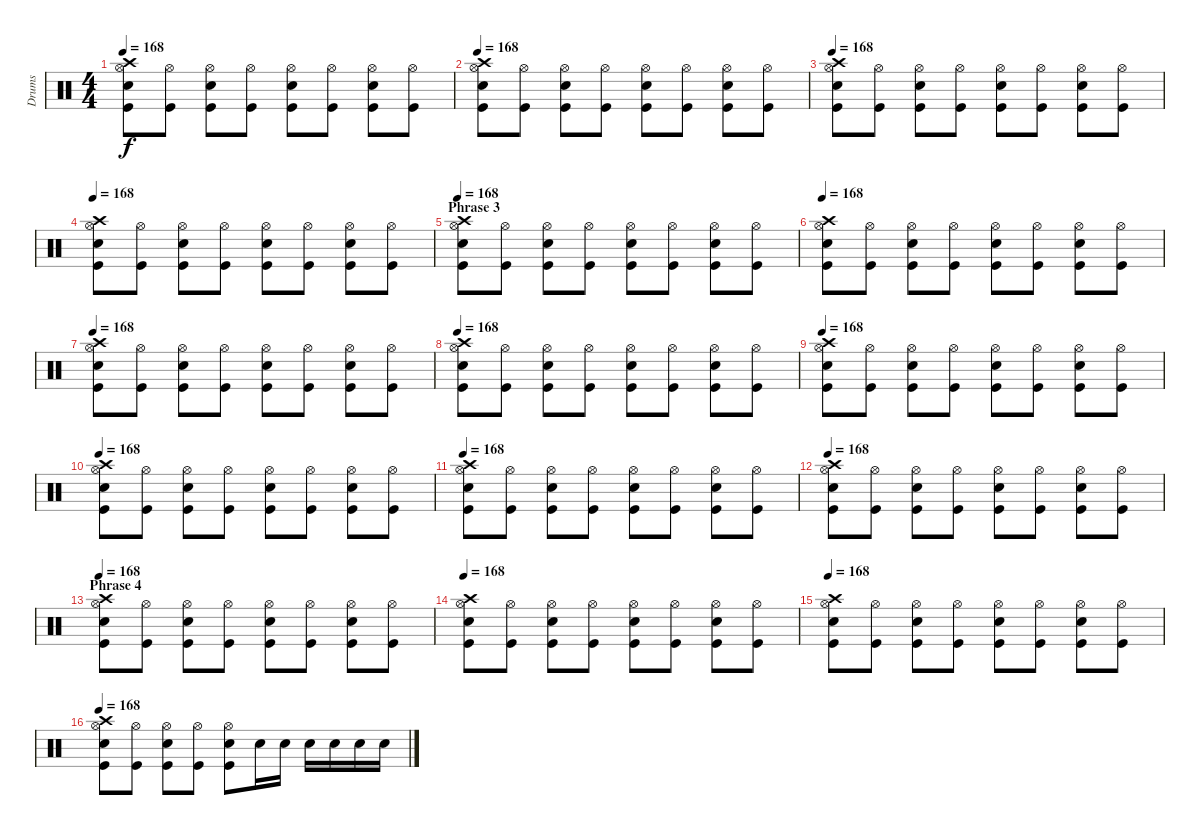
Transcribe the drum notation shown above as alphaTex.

\track ("Drums" "Drums") {instrument percussion}
\staff {score}
\articulation defaults
\ts (4 4)
\tempo 168
\clef neutral
\ks c
("Hi-Hat (open)" "Crash high (hit)" "Snare (hit) 2" "Kick (hit)").8{dy f} ("Hi-Hat (open)" "Kick (hit)").8 ("Hi-Hat (open)" "Snare (hit) 2" "Kick (hit)").8 ("Hi-Hat (open)" "Kick (hit)").8 ("Hi-Hat (open)" "Snare (hit) 2" "Kick (hit)").8 ("Hi-Hat (open)" "Kick (hit)").8 ("Hi-Hat (open)" "Snare (hit) 2" "Kick (hit)").8 ("Hi-Hat (open)" "Kick (hit)").8 |
\tempo 168
("Hi-Hat (open)" "Crash high (hit)" "Snare (hit) 2" "Kick (hit)").8 ("Hi-Hat (open)" "Kick (hit)").8 ("Hi-Hat (open)" "Snare (hit) 2" "Kick (hit)").8 ("Hi-Hat (open)" "Kick (hit)").8 ("Hi-Hat (open)" "Snare (hit) 2" "Kick (hit)").8 ("Hi-Hat (open)" "Kick (hit)").8 ("Hi-Hat (open)" "Snare (hit) 2" "Kick (hit)").8 ("Hi-Hat (open)" "Kick (hit)").8 |
\tempo 168
("Hi-Hat (open)" "Crash high (hit)" "Snare (hit) 2" "Kick (hit)").8 ("Hi-Hat (open)" "Kick (hit)").8 ("Hi-Hat (open)" "Snare (hit) 2" "Kick (hit)").8 ("Hi-Hat (open)" "Kick (hit)").8 ("Hi-Hat (open)" "Snare (hit) 2" "Kick (hit)").8 ("Hi-Hat (open)" "Kick (hit)").8 ("Hi-Hat (open)" "Snare (hit) 2" "Kick (hit)").8 ("Hi-Hat (open)" "Kick (hit)").8 |
\tempo 168
("Hi-Hat (open)" "Crash high (hit)" "Snare (hit) 2" "Kick (hit)").8 ("Hi-Hat (open)" "Kick (hit)").8 ("Hi-Hat (open)" "Snare (hit) 2" "Kick (hit)").8 ("Hi-Hat (open)" "Kick (hit)").8 ("Hi-Hat (open)" "Snare (hit) 2" "Kick (hit)").8 ("Hi-Hat (open)" "Kick (hit)").8 ("Hi-Hat (open)" "Snare (hit) 2" "Kick (hit)").8 ("Hi-Hat (open)" "Kick (hit)").8 |
\section ("" "Phrase 3")
\tempo 168
("Hi-Hat (open)" "Crash high (hit)" "Snare (hit) 2" "Kick (hit)").8 ("Hi-Hat (open)" "Kick (hit)").8 ("Hi-Hat (open)" "Snare (hit) 2" "Kick (hit)").8 ("Hi-Hat (open)" "Kick (hit)").8 ("Hi-Hat (open)" "Snare (hit) 2" "Kick (hit)").8 ("Hi-Hat (open)" "Kick (hit)").8 ("Hi-Hat (open)" "Snare (hit) 2" "Kick (hit)").8 ("Hi-Hat (open)" "Kick (hit)").8 |
\tempo 168
("Hi-Hat (open)" "Crash high (hit)" "Snare (hit) 2" "Kick (hit)").8 ("Hi-Hat (open)" "Kick (hit)").8 ("Hi-Hat (open)" "Snare (hit) 2" "Kick (hit)").8 ("Hi-Hat (open)" "Kick (hit)").8 ("Hi-Hat (open)" "Snare (hit) 2" "Kick (hit)").8 ("Hi-Hat (open)" "Kick (hit)").8 ("Hi-Hat (open)" "Snare (hit) 2" "Kick (hit)").8 ("Hi-Hat (open)" "Kick (hit)").8 |
\tempo 168
("Hi-Hat (open)" "Crash high (hit)" "Snare (hit) 2" "Kick (hit)").8 ("Hi-Hat (open)" "Kick (hit)").8 ("Hi-Hat (open)" "Snare (hit) 2" "Kick (hit)").8 ("Hi-Hat (open)" "Kick (hit)").8 ("Hi-Hat (open)" "Snare (hit) 2" "Kick (hit)").8 ("Hi-Hat (open)" "Kick (hit)").8 ("Hi-Hat (open)" "Snare (hit) 2" "Kick (hit)").8 ("Hi-Hat (open)" "Kick (hit)").8 |
\tempo 168
("Hi-Hat (open)" "Crash high (hit)" "Snare (hit) 2" "Kick (hit)").8 ("Hi-Hat (open)" "Kick (hit)").8 ("Hi-Hat (open)" "Snare (hit) 2" "Kick (hit)").8 ("Hi-Hat (open)" "Kick (hit)").8 ("Hi-Hat (open)" "Snare (hit) 2" "Kick (hit)").8 ("Hi-Hat (open)" "Kick (hit)").8 ("Hi-Hat (open)" "Snare (hit) 2" "Kick (hit)").8 ("Hi-Hat (open)" "Kick (hit)").8 |
\tempo 168
("Hi-Hat (open)" "Crash high (hit)" "Snare (hit) 2" "Kick (hit)").8 ("Hi-Hat (open)" "Kick (hit)").8 ("Hi-Hat (open)" "Snare (hit) 2" "Kick (hit)").8 ("Hi-Hat (open)" "Kick (hit)").8 ("Hi-Hat (open)" "Snare (hit) 2" "Kick (hit)").8 ("Hi-Hat (open)" "Kick (hit)").8 ("Hi-Hat (open)" "Snare (hit) 2" "Kick (hit)").8 ("Hi-Hat (open)" "Kick (hit)").8 |
\tempo 168
("Hi-Hat (open)" "Crash high (hit)" "Snare (hit) 2" "Kick (hit)").8 ("Hi-Hat (open)" "Kick (hit)").8 ("Hi-Hat (open)" "Snare (hit) 2" "Kick (hit)").8 ("Hi-Hat (open)" "Kick (hit)").8 ("Hi-Hat (open)" "Snare (hit) 2" "Kick (hit)").8 ("Hi-Hat (open)" "Kick (hit)").8 ("Hi-Hat (open)" "Snare (hit) 2" "Kick (hit)").8 ("Hi-Hat (open)" "Kick (hit)").8 |
\tempo 168
("Hi-Hat (open)" "Crash high (hit)" "Snare (hit) 2" "Kick (hit)").8 ("Hi-Hat (open)" "Kick (hit)").8 ("Hi-Hat (open)" "Snare (hit) 2" "Kick (hit)").8 ("Hi-Hat (open)" "Kick (hit)").8 ("Hi-Hat (open)" "Snare (hit) 2" "Kick (hit)").8 ("Hi-Hat (open)" "Kick (hit)").8 ("Hi-Hat (open)" "Snare (hit) 2" "Kick (hit)").8 ("Hi-Hat (open)" "Kick (hit)").8 |
\tempo 168
("Hi-Hat (open)" "Crash high (hit)" "Snare (hit) 2" "Kick (hit)").8 ("Hi-Hat (open)" "Kick (hit)").8 ("Hi-Hat (open)" "Snare (hit) 2" "Kick (hit)").8 ("Hi-Hat (open)" "Kick (hit)").8 ("Hi-Hat (open)" "Snare (hit) 2" "Kick (hit)").8 ("Hi-Hat (open)" "Kick (hit)").8 ("Hi-Hat (open)" "Snare (hit) 2" "Kick (hit)").8 ("Hi-Hat (open)" "Kick (hit)").8 |
\section ("" "Phrase 4")
\tempo 168
("Hi-Hat (open)" "Crash high (hit)" "Snare (hit) 2" "Kick (hit)").8 ("Hi-Hat (open)" "Kick (hit)").8 ("Hi-Hat (open)" "Snare (hit) 2" "Kick (hit)").8 ("Hi-Hat (open)" "Kick (hit)").8 ("Hi-Hat (open)" "Snare (hit) 2" "Kick (hit)").8 ("Hi-Hat (open)" "Kick (hit)").8 ("Hi-Hat (open)" "Snare (hit) 2" "Kick (hit)").8 ("Hi-Hat (open)" "Kick (hit)").8 |
\tempo 168
("Hi-Hat (open)" "Crash high (hit)" "Snare (hit) 2" "Kick (hit)").8 ("Hi-Hat (open)" "Kick (hit)").8 ("Hi-Hat (open)" "Snare (hit) 2" "Kick (hit)").8 ("Hi-Hat (open)" "Kick (hit)").8 ("Hi-Hat (open)" "Snare (hit) 2" "Kick (hit)").8 ("Hi-Hat (open)" "Kick (hit)").8 ("Hi-Hat (open)" "Snare (hit) 2" "Kick (hit)").8 ("Hi-Hat (open)" "Kick (hit)").8 |
\tempo 168
("Hi-Hat (open)" "Crash high (hit)" "Snare (hit) 2" "Kick (hit)").8 ("Hi-Hat (open)" "Kick (hit)").8 ("Hi-Hat (open)" "Snare (hit) 2" "Kick (hit)").8 ("Hi-Hat (open)" "Kick (hit)").8 ("Hi-Hat (open)" "Snare (hit) 2" "Kick (hit)").8 ("Hi-Hat (open)" "Kick (hit)").8 ("Hi-Hat (open)" "Snare (hit) 2" "Kick (hit)").8 ("Hi-Hat (open)" "Kick (hit)").8 |
\tempo 168
("Hi-Hat (open)" "Crash high (hit)" "Snare (hit) 2" "Kick (hit)").8 ("Hi-Hat (open)" "Kick (hit)").8 ("Hi-Hat (open)" "Snare (hit) 2" "Kick (hit)").8 ("Hi-Hat (open)" "Kick (hit)").8 ("Hi-Hat (open)" "Snare (hit) 2" "Kick (hit)").8 "Snare (hit) 2".16 "Snare (hit) 2".16 "Snare (hit) 2".16 "Snare (hit) 2".16 "Snare (hit) 2".16 "Snare (hit) 2".16
